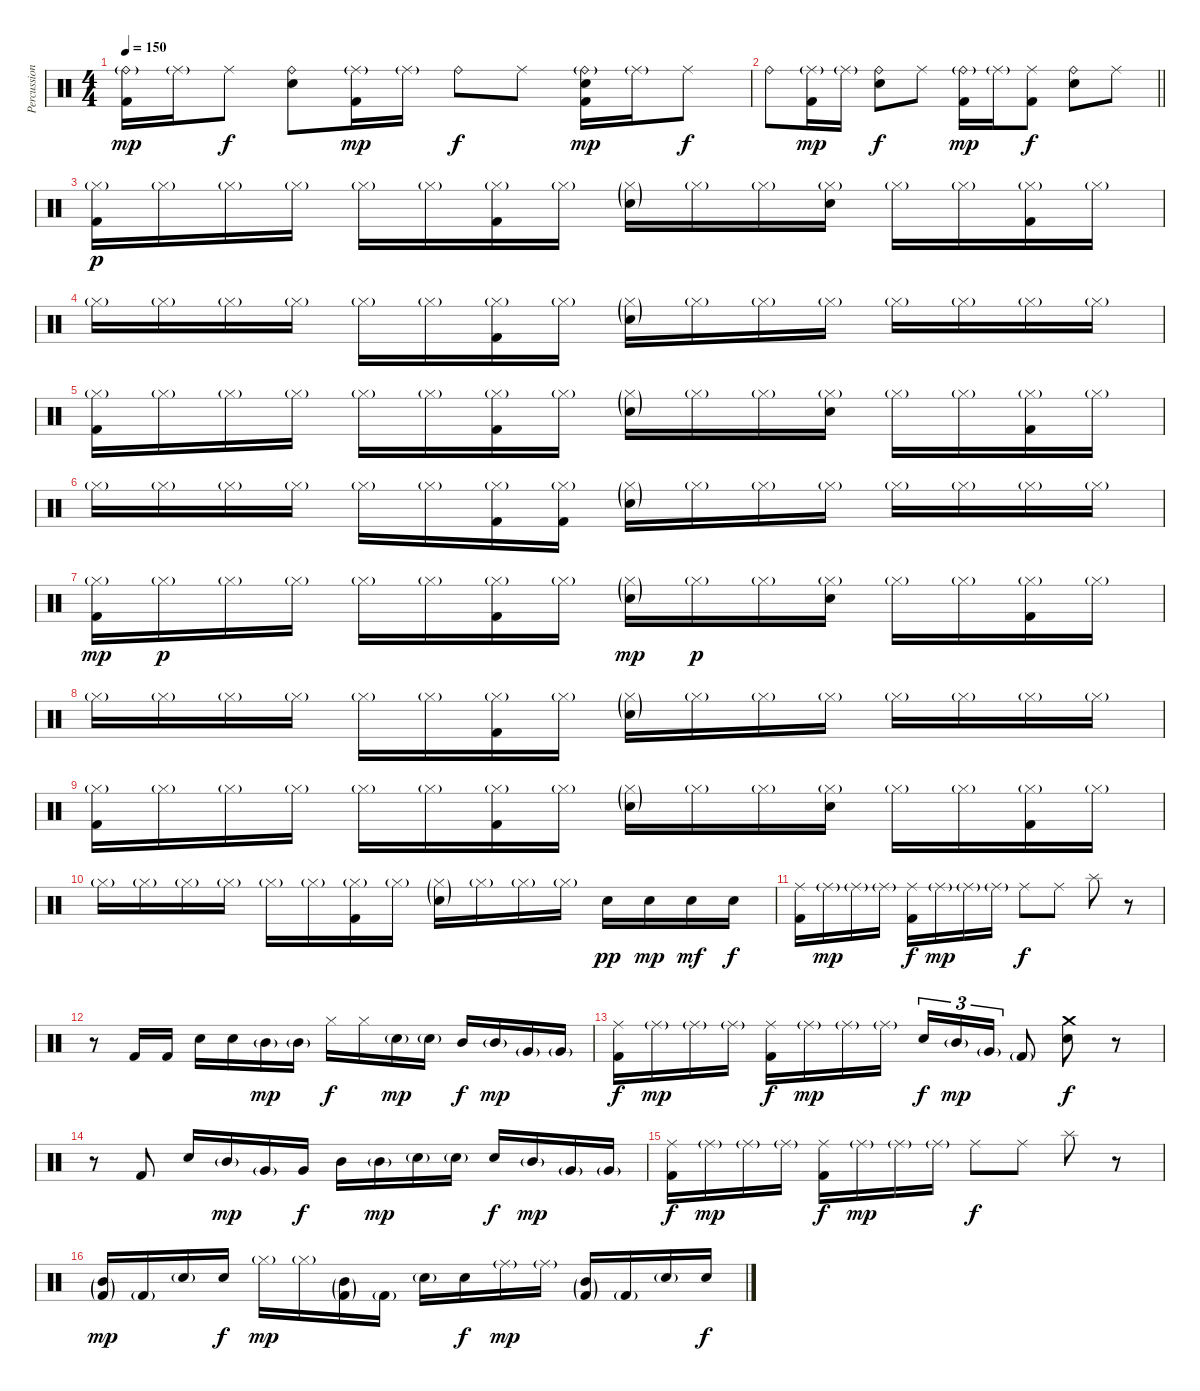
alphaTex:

\track ("Percussion" "Percussion") {instrument percussion}
\staff {score}
\articulation defaults
\ts (4 4)
\tempo 150
\clef neutral
\ks c
("Ride (bell)"{g} "Kick (hit) 2").16{dy mp} "Ride (middle)"{g}.16 "Ride (middle)".8{dy f} ("Ride (bell)" "Electric Snare (hit)").8 ("Ride (middle)"{g} "Kick (hit) 2").16{dy mp} "Ride (middle)"{g}.16 "Ride (bell)".8{dy f} "Ride (middle)".8 ("Ride (bell)"{g} "Electric Snare (hit)" "Kick (hit) 2").16{dy mp} "Ride (middle)"{g}.16 "Ride (middle)".8{dy f} |
\barLineRight lightlight "Ride (bell)".8
("Ride (middle)"{g} "Kick (hit) 2").16{dy mp} "Ride (middle)"{g}.16 ("Ride (bell)" "Electric Snare (hit)").8{dy f} "Ride (middle)".8 ("Ride (bell)"{g} "Kick (hit) 2").16{dy mp} "Ride (middle)"{g}.16 ("Ride (middle)" "Kick (hit) 2").8{dy f} ("Ride (bell)" "Electric Snare (hit)").8 "Ride (middle)".8 |
("Hi-Hat (closed)"{g} "Kick (hit) 2").16{dy p} "Hi-Hat (closed)"{g}.16 "Hi-Hat (closed)"{g}.16 "Hi-Hat (closed)"{g}.16 "Hi-Hat (closed)"{g}.16 "Hi-Hat (closed)"{g}.16 ("Hi-Hat (closed)"{g} "Kick (hit) 2").16 "Hi-Hat (closed)"{g}.16 ("Electric Snare (hit)"{g} "Hi-Hat (closed)"{g}).16 "Hi-Hat (closed)"{g}.16 "Hi-Hat (closed)"{g}.16 ("Electric Snare (hit)" "Hi-Hat (closed)"{g}).16 "Hi-Hat (closed)"{g}.16 "Hi-Hat (closed)"{g}.16 ("Hi-Hat (closed)"{g} "Kick (hit) 2").16 "Hi-Hat (closed)"{g}.16 |
"Hi-Hat (closed)"{g}.16 "Hi-Hat (closed)"{g}.16 "Hi-Hat (closed)"{g}.16 "Hi-Hat (closed)"{g}.16 "Hi-Hat (closed)"{g}.16 "Hi-Hat (closed)"{g}.16 ("Hi-Hat (closed)"{g} "Kick (hit) 2").16 "Hi-Hat (closed)"{g}.16 ("Electric Snare (hit)"{g} "Hi-Hat (closed)"{g}).16 "Hi-Hat (closed)"{g}.16 "Hi-Hat (closed)"{g}.16 "Hi-Hat (closed)"{g}.16 "Hi-Hat (closed)"{g}.16 "Hi-Hat (closed)"{g}.16 "Hi-Hat (closed)"{g}.16 "Hi-Hat (closed)"{g}.16 |
("Hi-Hat (closed)"{g} "Kick (hit) 2").16 "Hi-Hat (closed)"{g}.16 "Hi-Hat (closed)"{g}.16 "Hi-Hat (closed)"{g}.16 "Hi-Hat (closed)"{g}.16 "Hi-Hat (closed)"{g}.16 ("Hi-Hat (closed)"{g} "Kick (hit) 2").16 "Hi-Hat (closed)"{g}.16 ("Electric Snare (hit)"{g} "Hi-Hat (closed)"{g}).16 "Hi-Hat (closed)"{g}.16 "Hi-Hat (closed)"{g}.16 ("Electric Snare (hit)" "Hi-Hat (closed)"{g}).16 "Hi-Hat (closed)"{g}.16 "Hi-Hat (closed)"{g}.16 ("Hi-Hat (closed)"{g} "Kick (hit) 2").16 "Hi-Hat (closed)"{g}.16 |
"Hi-Hat (closed)"{g}.16 "Hi-Hat (closed)"{g}.16 "Hi-Hat (closed)"{g}.16 "Hi-Hat (closed)"{g}.16 "Hi-Hat (closed)"{g}.16 "Hi-Hat (closed)"{g}.16 ("Hi-Hat (closed)"{g} "Kick (hit) 2").16 ("Hi-Hat (closed)"{g} "Kick (hit) 2").16 ("Electric Snare (hit)"{g} "Hi-Hat (closed)"{g}).16 "Hi-Hat (closed)"{g}.16 "Hi-Hat (closed)"{g}.16 "Hi-Hat (closed)"{g}.16 "Hi-Hat (closed)"{g}.16 "Hi-Hat (closed)"{g}.16 "Hi-Hat (closed)"{g}.16 "Hi-Hat (closed)"{g}.16 |
("Hi-Hat (closed)"{g} "Kick (hit) 2").16{dy mp} "Hi-Hat (closed)"{g}.16{dy p} "Hi-Hat (closed)"{g}.16 "Hi-Hat (closed)"{g}.16 "Hi-Hat (closed)"{g}.16 "Hi-Hat (closed)"{g}.16 ("Hi-Hat (closed)"{g} "Kick (hit) 2").16 "Hi-Hat (closed)"{g}.16 ("Electric Snare (hit)"{g} "Hi-Hat (closed)"{g}).16{dy mp} "Hi-Hat (closed)"{g}.16{dy p} "Hi-Hat (closed)"{g}.16 ("Electric Snare (hit)" "Hi-Hat (closed)"{g}).16 "Hi-Hat (closed)"{g}.16 "Hi-Hat (closed)"{g}.16 ("Hi-Hat (closed)"{g} "Kick (hit) 2").16 "Hi-Hat (closed)"{g}.16 |
"Hi-Hat (closed)"{g}.16 "Hi-Hat (closed)"{g}.16 "Hi-Hat (closed)"{g}.16 "Hi-Hat (closed)"{g}.16 "Hi-Hat (closed)"{g}.16 "Hi-Hat (closed)"{g}.16 ("Hi-Hat (closed)"{g} "Kick (hit) 2").16 "Hi-Hat (closed)"{g}.16 ("Electric Snare (hit)"{g} "Hi-Hat (closed)"{g}).16 "Hi-Hat (closed)"{g}.16 "Hi-Hat (closed)"{g}.16 "Hi-Hat (closed)"{g}.16 "Hi-Hat (closed)"{g}.16 "Hi-Hat (closed)"{g}.16 "Hi-Hat (closed)"{g}.16 "Hi-Hat (closed)"{g}.16 |
("Hi-Hat (closed)"{g} "Kick (hit) 2").16 "Hi-Hat (closed)"{g}.16 "Hi-Hat (closed)"{g}.16 "Hi-Hat (closed)"{g}.16 "Hi-Hat (closed)"{g}.16 "Hi-Hat (closed)"{g}.16 ("Hi-Hat (closed)"{g} "Kick (hit) 2").16 "Hi-Hat (closed)"{g}.16 ("Electric Snare (hit)"{g} "Hi-Hat (closed)"{g}).16 "Hi-Hat (closed)"{g}.16 "Hi-Hat (closed)"{g}.16 ("Electric Snare (hit)" "Hi-Hat (closed)"{g}).16 "Hi-Hat (closed)"{g}.16 "Hi-Hat (closed)"{g}.16 ("Hi-Hat (closed)"{g} "Kick (hit) 2").16 "Hi-Hat (closed)"{g}.16 |
"Hi-Hat (closed)"{g}.16 "Hi-Hat (closed)"{g}.16 "Hi-Hat (closed)"{g}.16 "Hi-Hat (closed)"{g}.16 "Hi-Hat (closed)"{g}.16 "Hi-Hat (closed)"{g}.16 ("Hi-Hat (closed)"{g} "Kick (hit) 2").16 "Hi-Hat (closed)"{g}.16 ("Electric Snare (hit)"{g} "Hi-Hat (closed)"{g}).16 "Hi-Hat (closed)"{g}.16 "Hi-Hat (closed)"{g}.16 "Hi-Hat (closed)"{g}.16 "Electric Snare (hit)".16{dy pp} "Electric Snare (hit)".16{dy mp} "Electric Snare (hit)".16{dy mf} "Electric Snare (hit)".16{dy f} |
("Ride (middle)" "Kick (hit) 2").16 "Ride (middle)"{g}.16{dy mp} "Ride (middle)"{g}.16 "Ride (middle)"{g}.16 ("Ride (middle)" "Kick (hit) 2").16{dy f} "Ride (middle)"{g}.16{dy mp} "Ride (middle)"{g}.16 "Ride (middle)"{g}.16 "Ride (middle)".8{dy f} "Ride (middle)".8 "Splash (hit)".8 r.8 |
r.8 "Kick (hit) 2".16 "Kick (hit) 2".16 "Electric Snare (hit)".16 "Electric Snare (hit)".16 "Mid Tom (hit)"{g}.16{dy mp} "Mid Tom (hit)"{g}.16 "Hi-Hat (closed)".16{dy f} "Hi-Hat (closed)".16 "Electric Snare (hit)"{g}.16{dy mp} "Electric Snare (hit)"{g}.16 "Mid Tom (hit)".16{dy f} "Mid Tom (hit)"{g}.16{dy mp} "Very Low Tom (hit)"{g}.16 "Very Low Tom (hit)"{g}.16 |
("Ride (middle)" "Kick (hit) 2").16{dy f} "Ride (middle)"{g}.16{dy mp} "Ride (middle)"{g}.16 "Ride (middle)"{g}.16 ("Ride (middle)" "Kick (hit) 2").16{dy f} "Ride (middle)"{g}.16{dy mp} "Ride (middle)"{g}.16 "Ride (middle)"{g}.16 "Electric Snare (hit)".16{tu (3 2) dy f} "Mid Tom (hit)"{g}.16{tu (3 2) dy mp} "Very Low Tom (hit)"{g}.16{tu (3 2)} "Kick (hit) 2"{g}.8 ("Crash medium (hit)" "Electric Snare (hit)").8{dy f} r.8 |
r.8 "Kick (hit) 2".8 "Electric Snare (hit)".16 "Mid Tom (hit)"{g}.16{dy mp} "Very Low Tom (hit)"{g}.16 "Very Low Tom (hit)".16{dy f} "Mid Tom (hit)".16 "Mid Tom (hit)"{g}.16{dy mp} "Electric Snare (hit)"{g}.16 "Electric Snare (hit)"{g}.16 "Electric Snare (hit)".16{dy f} "Mid Tom (hit)"{g}.16{dy mp} "Very Low Tom (hit)"{g}.16 "Very Low Tom (hit)"{g}.16 |
("Ride (middle)" "Kick (hit) 2").16{dy f} "Ride (middle)"{g}.16{dy mp} "Ride (middle)"{g}.16 "Ride (middle)"{g}.16 ("Ride (middle)" "Kick (hit) 2").16{dy f} "Ride (middle)"{g}.16{dy mp} "Ride (middle)"{g}.16 "Ride (middle)"{g}.16 "Ride (middle)".8{dy f} "Ride (middle)".8 "Splash (hit)".8 r.8 |
("Mid Tom (hit)"{g} "Kick (hit) 2"{g}).16{dy mp} "Kick (hit) 2"{g}.16 "Electric Snare (hit)"{g}.16 "Electric Snare (hit)".16{dy f} "Hi-Hat (closed)"{g}.16{dy mp} "Hi-Hat (closed)"{g}.16 ("Mid Tom (hit)"{g} "Kick (hit) 2"{g}).16 "Kick (hit) 2"{g}.16 "Electric Snare (hit)"{g}.16 "Electric Snare (hit)".16{dy f} "Ride (middle)"{g}.16{dy mp} "Ride (middle)"{g}.16 ("Mid Tom (hit)"{g} "Kick (hit) 2"{g}).16 "Kick (hit) 2"{g}.16 "Electric Snare (hit)"{g}.16 "Electric Snare (hit)".16{dy f}
